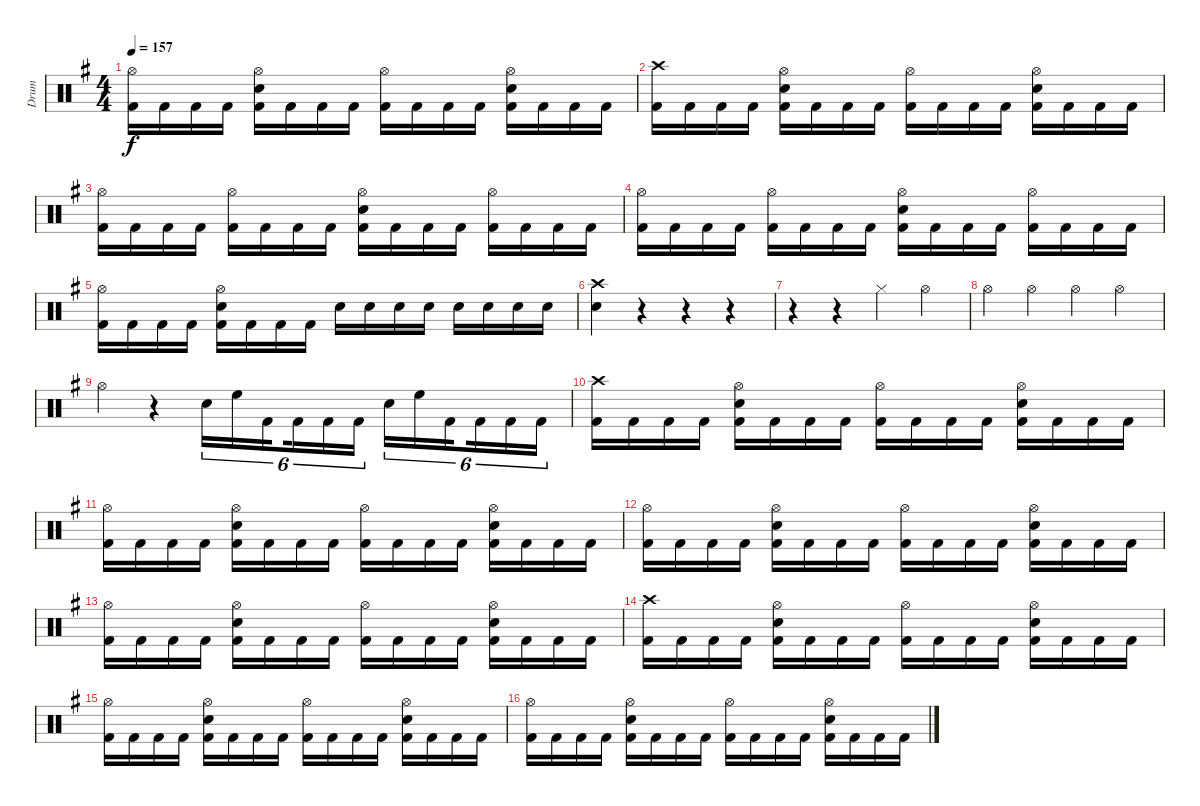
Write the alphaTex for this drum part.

\track ("Drum" "Drum") {instrument percussion}
\staff {score}
\articulation defaults
\ts (4 4)
\tempo 157
\clef neutral
\ks eminor
("Hi-Hat (open)" "Kick (hit) 2").16{dy f} "Kick (hit) 2".16 "Kick (hit) 2".16 "Kick (hit) 2".16 ("Hi-Hat (open)" "Snare (hit) 2" "Kick (hit) 2").16 "Kick (hit) 2".16 "Kick (hit) 2".16 "Kick (hit) 2".16 ("Hi-Hat (open)" "Kick (hit) 2").16 "Kick (hit) 2".16 "Kick (hit) 2".16 "Kick (hit) 2".16 ("Hi-Hat (open)" "Snare (hit) 2" "Kick (hit) 2").16 "Kick (hit) 2".16 "Kick (hit) 2".16 "Kick (hit) 2".16 |
("Crash high (hit)" "Kick (hit) 2").16 "Kick (hit) 2".16 "Kick (hit) 2".16 "Kick (hit) 2".16 ("Hi-Hat (open)" "Snare (hit) 2" "Kick (hit) 2").16 "Kick (hit) 2".16 "Kick (hit) 2".16 "Kick (hit) 2".16 ("Hi-Hat (open)" "Kick (hit) 2").16 "Kick (hit) 2".16 "Kick (hit) 2".16 "Kick (hit) 2".16 ("Hi-Hat (open)" "Snare (hit) 2" "Kick (hit) 2").16 "Kick (hit) 2".16 "Kick (hit) 2".16 "Kick (hit) 2".16 |
("Hi-Hat (open)" "Kick (hit) 2").16 "Kick (hit) 2".16 "Kick (hit) 2".16 "Kick (hit) 2".16 ("Hi-Hat (open)" "Kick (hit) 2").16 "Kick (hit) 2".16 "Kick (hit) 2".16 "Kick (hit) 2".16 ("Hi-Hat (open)" "Snare (hit) 2" "Kick (hit) 2").16 "Kick (hit) 2".16 "Kick (hit) 2".16 "Kick (hit) 2".16 ("Hi-Hat (open)" "Kick (hit) 2").16 "Kick (hit) 2".16 "Kick (hit) 2".16 "Kick (hit) 2".16 |
("Hi-Hat (open)" "Kick (hit) 2").16 "Kick (hit) 2".16 "Kick (hit) 2".16 "Kick (hit) 2".16 ("Hi-Hat (open)" "Kick (hit) 2").16 "Kick (hit) 2".16 "Kick (hit) 2".16 "Kick (hit) 2".16 ("Hi-Hat (open)" "Snare (hit) 2" "Kick (hit) 2").16 "Kick (hit) 2".16 "Kick (hit) 2".16 "Kick (hit) 2".16 ("Hi-Hat (open)" "Kick (hit) 2").16 "Kick (hit) 2".16 "Kick (hit) 2".16 "Kick (hit) 2".16 |
("Hi-Hat (open)" "Kick (hit) 2").16 "Kick (hit) 2".16 "Kick (hit) 2".16 "Kick (hit) 2".16 ("Hi-Hat (open)" "Snare (hit) 2" "Kick (hit) 2").16 "Kick (hit) 2".16 "Kick (hit) 2".16 "Kick (hit) 2".16 "Snare (hit) 2".16 "Snare (hit) 2".16 "Snare (hit) 2".16 "Snare (hit) 2".16 "Snare (hit) 2".16 "Snare (hit) 2".16 "Snare (hit) 2".16 "Snare (hit) 2".16 |
("Crash high (hit)" "Snare (hit) 2").4 r.4 r.4 r.4 |
r.4 r.4 "Hi-Hat (closed)".4 "Hi-Hat (open)".4 |
"Hi-Hat (open)".4 "Hi-Hat (open)".4 "Hi-Hat (open)".4 "Hi-Hat (open)".4 |
"Hi-Hat (open)".4 r.4 "Snare (hit) 2".16{tu (6 4)} "High Floor Tom (hit)".16{tu (6 4)} "Kick (hit) 2".16{tu (6 4) beam splitsecondary} "Kick (hit) 2".16{tu (6 4)} "Kick (hit) 2".16{tu (6 4)} "Kick (hit) 2".16{tu (6 4)} "Snare (hit) 2".16{tu (6 4)} "High Floor Tom (hit)".16{tu (6 4)} "Kick (hit) 2".16{tu (6 4) beam splitsecondary} "Kick (hit) 2".16{tu (6 4)} "Kick (hit) 2".16{tu (6 4)} "Kick (hit) 2".16{tu (6 4)} |
("Crash high (hit)" "Kick (hit) 2").16 "Kick (hit) 2".16 "Kick (hit) 2".16 "Kick (hit) 2".16 ("Hi-Hat (open)" "Snare (hit) 2" "Kick (hit) 2").16 "Kick (hit) 2".16 "Kick (hit) 2".16 "Kick (hit) 2".16 ("Hi-Hat (open)" "Kick (hit) 2").16 "Kick (hit) 2".16 "Kick (hit) 2".16 "Kick (hit) 2".16 ("Hi-Hat (open)" "Snare (hit) 2" "Kick (hit) 2").16 "Kick (hit) 2".16 "Kick (hit) 2".16 "Kick (hit) 2".16 |
("Hi-Hat (open)" "Kick (hit) 2").16 "Kick (hit) 2".16 "Kick (hit) 2".16 "Kick (hit) 2".16 ("Hi-Hat (open)" "Snare (hit) 2" "Kick (hit) 2").16 "Kick (hit) 2".16 "Kick (hit) 2".16 "Kick (hit) 2".16 ("Hi-Hat (open)" "Kick (hit) 2").16 "Kick (hit) 2".16 "Kick (hit) 2".16 "Kick (hit) 2".16 ("Hi-Hat (open)" "Snare (hit) 2" "Kick (hit) 2").16 "Kick (hit) 2".16 "Kick (hit) 2".16 "Kick (hit) 2".16 |
("Hi-Hat (open)" "Kick (hit) 2").16 "Kick (hit) 2".16 "Kick (hit) 2".16 "Kick (hit) 2".16 ("Hi-Hat (open)" "Snare (hit) 2" "Kick (hit) 2").16 "Kick (hit) 2".16 "Kick (hit) 2".16 "Kick (hit) 2".16 ("Hi-Hat (open)" "Kick (hit) 2").16 "Kick (hit) 2".16 "Kick (hit) 2".16 "Kick (hit) 2".16 ("Hi-Hat (open)" "Snare (hit) 2" "Kick (hit) 2").16 "Kick (hit) 2".16 "Kick (hit) 2".16 "Kick (hit) 2".16 |
("Hi-Hat (open)" "Kick (hit) 2").16 "Kick (hit) 2".16 "Kick (hit) 2".16 "Kick (hit) 2".16 ("Hi-Hat (open)" "Snare (hit) 2" "Kick (hit) 2").16 "Kick (hit) 2".16 "Kick (hit) 2".16 "Kick (hit) 2".16 ("Hi-Hat (open)" "Kick (hit) 2").16 "Kick (hit) 2".16 "Kick (hit) 2".16 "Kick (hit) 2".16 ("Hi-Hat (open)" "Snare (hit) 2" "Kick (hit) 2").16 "Kick (hit) 2".16 "Kick (hit) 2".16 "Kick (hit) 2".16 |
("Crash high (hit)" "Kick (hit) 2").16 "Kick (hit) 2".16 "Kick (hit) 2".16 "Kick (hit) 2".16 ("Hi-Hat (open)" "Snare (hit) 2" "Kick (hit) 2").16 "Kick (hit) 2".16 "Kick (hit) 2".16 "Kick (hit) 2".16 ("Hi-Hat (open)" "Kick (hit) 2").16 "Kick (hit) 2".16 "Kick (hit) 2".16 "Kick (hit) 2".16 ("Hi-Hat (open)" "Snare (hit) 2" "Kick (hit) 2").16 "Kick (hit) 2".16 "Kick (hit) 2".16 "Kick (hit) 2".16 |
("Hi-Hat (open)" "Kick (hit) 2").16 "Kick (hit) 2".16 "Kick (hit) 2".16 "Kick (hit) 2".16 ("Hi-Hat (open)" "Snare (hit) 2" "Kick (hit) 2").16 "Kick (hit) 2".16 "Kick (hit) 2".16 "Kick (hit) 2".16 ("Hi-Hat (open)" "Kick (hit) 2").16 "Kick (hit) 2".16 "Kick (hit) 2".16 "Kick (hit) 2".16 ("Hi-Hat (open)" "Snare (hit) 2" "Kick (hit) 2").16 "Kick (hit) 2".16 "Kick (hit) 2".16 "Kick (hit) 2".16 |
("Hi-Hat (open)" "Kick (hit) 2").16 "Kick (hit) 2".16 "Kick (hit) 2".16 "Kick (hit) 2".16 ("Hi-Hat (open)" "Snare (hit) 2" "Kick (hit) 2").16 "Kick (hit) 2".16 "Kick (hit) 2".16 "Kick (hit) 2".16 ("Hi-Hat (open)" "Kick (hit) 2").16 "Kick (hit) 2".16 "Kick (hit) 2".16 "Kick (hit) 2".16 ("Hi-Hat (open)" "Snare (hit) 2" "Kick (hit) 2").16 "Kick (hit) 2".16 "Kick (hit) 2".16 "Kick (hit) 2".16
